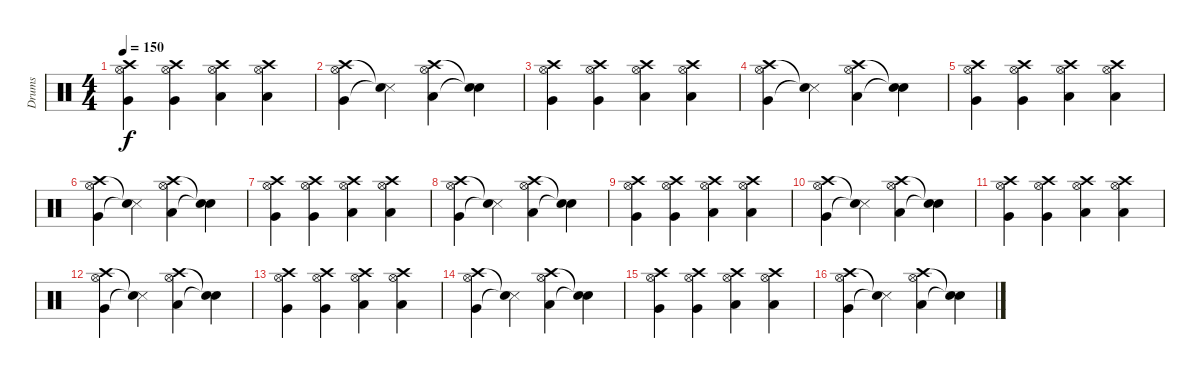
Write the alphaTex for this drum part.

\track ("Drums" "Drums") {instrument percussion}
\staff {score}
\articulation defaults
\ts (4 4)
\tempo 150
\clef neutral
\ks c
("Crash high (hit)" "Very Low Tom (hit)" "Hi-Hat (open)").4{dy f} ("Crash high (hit)" "Very Low Tom (hit)" "Hi-Hat (open)").4 ("Crash high (hit)" "Low Floor Tom (hit)" "Hi-Hat (open)").4 ("Crash high (hit)" "Low Floor Tom (hit)" "Hi-Hat (open)").4 |
("Crash high (hit)" "Very Low Tom (hit)" "Hi-Hat (open)").4 ("Snare (side stick) 3"{t} "Snare (hit)"{t}).4 ("Crash high (hit)" "Low Floor Tom (hit)" "Hi-Hat (open)").4 ("Snare (hit)"{t} "Snare (hit)"{t}).4 |
("Crash high (hit)" "Very Low Tom (hit)" "Hi-Hat (open)").4 ("Crash high (hit)" "Very Low Tom (hit)" "Hi-Hat (open)").4 ("Crash high (hit)" "Low Floor Tom (hit)" "Hi-Hat (open)").4 ("Crash high (hit)" "Low Floor Tom (hit)" "Hi-Hat (open)").4 |
("Crash high (hit)" "Very Low Tom (hit)" "Hi-Hat (open)").4 ("Snare (side stick) 3"{t} "Snare (hit)"{t}).4 ("Crash high (hit)" "Low Floor Tom (hit)" "Hi-Hat (open)").4 ("Snare (hit)"{t} "Snare (hit)"{t}).4 |
("Crash high (hit)" "Very Low Tom (hit)" "Hi-Hat (open)").4 ("Crash high (hit)" "Very Low Tom (hit)" "Hi-Hat (open)").4 ("Crash high (hit)" "Low Floor Tom (hit)" "Hi-Hat (open)").4 ("Crash high (hit)" "Low Floor Tom (hit)" "Hi-Hat (open)").4 |
("Crash high (hit)" "Very Low Tom (hit)" "Hi-Hat (open)").4 ("Snare (side stick) 3"{t} "Snare (hit)"{t}).4 ("Crash high (hit)" "Low Floor Tom (hit)" "Hi-Hat (open)").4 ("Snare (hit)"{t} "Snare (hit)"{t}).4 |
("Crash high (hit)" "Very Low Tom (hit)" "Hi-Hat (open)").4 ("Crash high (hit)" "Very Low Tom (hit)" "Hi-Hat (open)").4 ("Crash high (hit)" "Low Floor Tom (hit)" "Hi-Hat (open)").4 ("Crash high (hit)" "Low Floor Tom (hit)" "Hi-Hat (open)").4 |
("Crash high (hit)" "Very Low Tom (hit)" "Hi-Hat (open)").4 ("Snare (side stick) 3"{t} "Snare (hit)"{t}).4 ("Crash high (hit)" "Low Floor Tom (hit)" "Hi-Hat (open)").4 ("Snare (hit)"{t} "Snare (hit)"{t}).4 |
("Crash high (hit)" "Very Low Tom (hit)" "Hi-Hat (open)").4 ("Crash high (hit)" "Very Low Tom (hit)" "Hi-Hat (open)").4 ("Crash high (hit)" "Low Floor Tom (hit)" "Hi-Hat (open)").4 ("Crash high (hit)" "Low Floor Tom (hit)" "Hi-Hat (open)").4 |
("Crash high (hit)" "Very Low Tom (hit)" "Hi-Hat (open)").4 ("Snare (side stick) 3"{t} "Snare (hit)"{t}).4 ("Crash high (hit)" "Low Floor Tom (hit)" "Hi-Hat (open)").4 ("Snare (hit)"{t} "Snare (hit)"{t}).4 |
("Crash high (hit)" "Very Low Tom (hit)" "Hi-Hat (open)").4 ("Crash high (hit)" "Very Low Tom (hit)" "Hi-Hat (open)").4 ("Crash high (hit)" "Low Floor Tom (hit)" "Hi-Hat (open)").4 ("Crash high (hit)" "Low Floor Tom (hit)" "Hi-Hat (open)").4 |
("Crash high (hit)" "Very Low Tom (hit)" "Hi-Hat (open)").4 ("Snare (side stick) 3"{t} "Snare (hit)"{t}).4 ("Crash high (hit)" "Low Floor Tom (hit)" "Hi-Hat (open)").4 ("Snare (hit)"{t} "Snare (hit)"{t}).4 |
("Crash high (hit)" "Very Low Tom (hit)" "Hi-Hat (open)").4 ("Crash high (hit)" "Very Low Tom (hit)" "Hi-Hat (open)").4 ("Crash high (hit)" "Low Floor Tom (hit)" "Hi-Hat (open)").4 ("Crash high (hit)" "Low Floor Tom (hit)" "Hi-Hat (open)").4 |
("Crash high (hit)" "Very Low Tom (hit)" "Hi-Hat (open)").4 ("Snare (side stick) 3"{t} "Snare (hit)"{t}).4 ("Crash high (hit)" "Low Floor Tom (hit)" "Hi-Hat (open)").4 ("Snare (hit)"{t} "Snare (hit)"{t}).4 |
("Crash high (hit)" "Very Low Tom (hit)" "Hi-Hat (open)").4 ("Crash high (hit)" "Very Low Tom (hit)" "Hi-Hat (open)").4 ("Crash high (hit)" "Low Floor Tom (hit)" "Hi-Hat (open)").4 ("Crash high (hit)" "Low Floor Tom (hit)" "Hi-Hat (open)").4 |
("Crash high (hit)" "Very Low Tom (hit)" "Hi-Hat (open)").4 ("Snare (side stick) 3"{t} "Snare (hit)"{t}).4 ("Crash high (hit)" "Low Floor Tom (hit)" "Hi-Hat (open)").4 ("Snare (hit)"{t} "Snare (hit)"{t}).4
